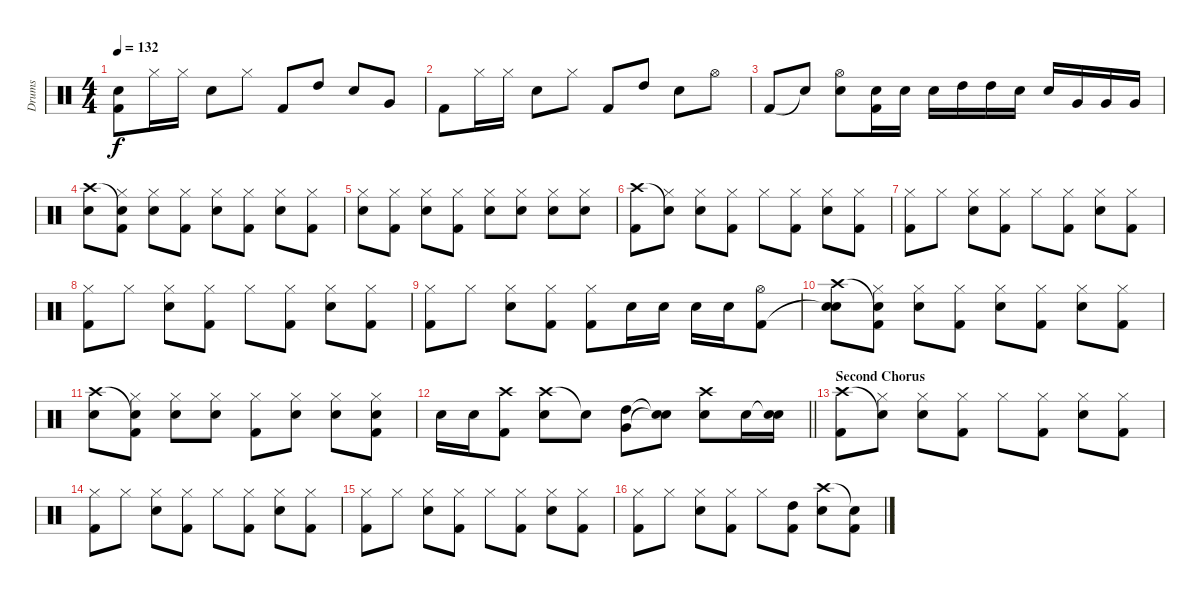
\track ("Drums" "Drums") {instrument percussion}
\staff {score}
\articulation defaults
\ts (4 4)
\tempo 132
\clef neutral
\ks c
("Snare (hit)"{t} "Kick (hit) 2").8{dy f} "Hi-Hat (closed)".16 "Hi-Hat (closed)".16 "Snare (hit) 2".8 "Hi-Hat (closed)".8 "Kick (hit) 2".8 "High Tom (hit)".8 "Snare (hit) 2".8 "Very Low Tom (hit)".8 |
"Kick (hit) 2".8 "Hi-Hat (closed)".16 "Hi-Hat (closed)".16 "Snare (hit) 2".8 "Hi-Hat (closed)".8 "Kick (hit) 2".8 "High Tom (hit)".8 "Snare (hit) 2".8 "Hi-Hat (open)".8 |
"Kick (hit) 2".8 "Snare (hit)"{t}.8 ("Hi-Hat (open)" "Snare (hit) 2").8 ("Snare (hit) 2" "Kick (hit) 2").16 "Snare (hit) 2".16 "Snare (hit) 2".16 "High Tom (hit)".16 "High Tom (hit)".16 "Snare (hit) 2".16 "Snare (hit) 2".16 "Very Low Tom (hit)".16 "Very Low Tom (hit)".16 "Very Low Tom (hit)".16 |
("Crash high (hit)" "Snare (hit) 2").8 ("Snare (hit)"{t} "Hi-Hat (closed)" "Kick (hit) 2").8 ("Hi-Hat (closed)" "Snare (hit) 2").8 ("Hi-Hat (closed)" "Kick (hit) 2").8 ("Hi-Hat (closed)" "Snare (hit) 2").8 ("Hi-Hat (closed)" "Kick (hit) 2").8 ("Hi-Hat (closed)" "Snare (hit) 2").8 ("Hi-Hat (closed)" "Kick (hit) 2").8 |
("Hi-Hat (closed)" "Snare (hit) 2").8 ("Hi-Hat (closed)" "Kick (hit) 2").8 ("Hi-Hat (closed)" "Snare (hit) 2").8 ("Hi-Hat (closed)" "Kick (hit) 2").8 ("Hi-Hat (closed)" "Snare (hit) 2").8 ("Hi-Hat (closed)" "Snare (hit) 2").8 ("Hi-Hat (closed)" "Snare (hit) 2").8 ("Hi-Hat (closed)" "Snare (hit) 2").8 |
("Crash high (hit)" "Kick (hit) 2").8 ("Snare (hit)"{t} "Hi-Hat (closed)").8 ("Hi-Hat (closed)" "Snare (hit) 2").8 ("Hi-Hat (closed)" "Kick (hit) 2").8 "Hi-Hat (closed)".8 ("Hi-Hat (closed)" "Kick (hit) 2").8 ("Hi-Hat (closed)" "Snare (hit) 2").8 ("Hi-Hat (closed)" "Kick (hit) 2").8 |
("Hi-Hat (closed)" "Kick (hit) 2").8 "Hi-Hat (closed)".8 ("Hi-Hat (closed)" "Snare (hit) 2").8 ("Hi-Hat (closed)" "Kick (hit) 2").8 "Hi-Hat (closed)".8 ("Hi-Hat (closed)" "Kick (hit) 2").8 ("Hi-Hat (closed)" "Snare (hit) 2").8 ("Hi-Hat (closed)" "Kick (hit) 2").8 |
("Hi-Hat (closed)" "Kick (hit) 2").8 "Hi-Hat (closed)".8 ("Hi-Hat (closed)" "Snare (hit) 2").8 ("Hi-Hat (closed)" "Kick (hit) 2").8 "Hi-Hat (closed)".8 ("Hi-Hat (closed)" "Kick (hit) 2").8 ("Hi-Hat (closed)" "Snare (hit) 2").8 ("Hi-Hat (closed)" "Kick (hit) 2").8 |
("Hi-Hat (closed)" "Kick (hit) 2").8 "Hi-Hat (closed)".8 ("Hi-Hat (closed)" "Snare (hit) 2").8 ("Hi-Hat (closed)" "Kick (hit) 2").8 ("Hi-Hat (closed)" "Kick (hit) 2").8 "Snare (hit) 2".16 "Snare (hit) 2".16 "Snare (hit) 2".16 "Snare (hit) 2".16 ("Hi-Hat (open)" "Kick (hit) 2").8 |
("Crash high (hit)" "Snare (hit)"{t} "Snare (hit) 2").8 ("Snare (hit)"{t} "Hi-Hat (closed)" "Kick (hit) 2").8 ("Hi-Hat (closed)" "Snare (hit) 2").8 ("Hi-Hat (closed)" "Kick (hit) 2").8 ("Hi-Hat (closed)" "Snare (hit) 2").8 ("Hi-Hat (closed)" "Kick (hit) 2").8 ("Hi-Hat (closed)" "Snare (hit) 2").8 ("Hi-Hat (closed)" "Kick (hit) 2").8 |
("Crash high (hit)" "Snare (hit) 2").8 ("Snare (hit)"{t} "Hi-Hat (closed)" "Kick (hit) 2").8 ("Hi-Hat (closed)" "Snare (hit) 2").8 ("Hi-Hat (closed)" "Snare (hit) 2").8 ("Hi-Hat (closed)" "Kick (hit) 2").8 ("Hi-Hat (closed)" "Snare (hit) 2").8 ("Hi-Hat (closed)" "Snare (hit) 2").8 ("Hi-Hat (closed)" "Snare (hit) 2" "Kick (hit) 2").8 |
\barLineRight lightlight "Snare (hit) 2".16 "Snare (hit) 2".16
("Crash high (hit)" "Kick (hit) 2").8 ("Crash high (hit)" "Snare (hit) 2").8 "Snare (hit)"{t}.8 ("High Tom (hit)" "Very Low Tom (hit)").8 ("Snare (hit)"{t} "Snare (hit)"{t}).8 ("Crash high (hit)" "Snare (hit) 2").8 "Snare (hit) 2".16 ("Snare (hit)"{t} "Snare (hit) 2").16 |
\section ("" "Second Chorus")
("Crash high (hit)" "Kick (hit) 2").8 ("Snare (hit)"{t} "Hi-Hat (closed)").8 ("Hi-Hat (closed)" "Snare (hit) 2").8 ("Hi-Hat (closed)" "Kick (hit) 2").8 "Hi-Hat (closed)".8 ("Hi-Hat (closed)" "Kick (hit) 2").8 ("Hi-Hat (closed)" "Snare (hit) 2").8 ("Hi-Hat (closed)" "Kick (hit) 2").8 |
("Hi-Hat (closed)" "Kick (hit) 2").8 "Hi-Hat (closed)".8 ("Hi-Hat (closed)" "Snare (hit) 2").8 ("Hi-Hat (closed)" "Kick (hit) 2").8 "Hi-Hat (closed)".8 ("Hi-Hat (closed)" "Kick (hit) 2").8 ("Hi-Hat (closed)" "Snare (hit) 2").8 ("Hi-Hat (closed)" "Kick (hit) 2").8 |
("Hi-Hat (closed)" "Kick (hit) 2").8 "Hi-Hat (closed)".8 ("Hi-Hat (closed)" "Snare (hit) 2").8 ("Hi-Hat (closed)" "Kick (hit) 2").8 "Hi-Hat (closed)".8 ("Hi-Hat (closed)" "Kick (hit) 2").8 ("Hi-Hat (closed)" "Snare (hit) 2").8 ("Hi-Hat (closed)" "Kick (hit) 2").8 |
("Hi-Hat (closed)" "Kick (hit) 2").8 "Hi-Hat (closed)".8 ("Hi-Hat (closed)" "Snare (hit) 2").8 ("Hi-Hat (closed)" "Kick (hit) 2").8 "Hi-Hat (closed)".8 ("High Tom (hit)" "Kick (hit) 2").8 ("Crash high (hit)" "Snare (hit) 2").8 ("Snare (hit)"{t} "Kick (hit) 2").8
